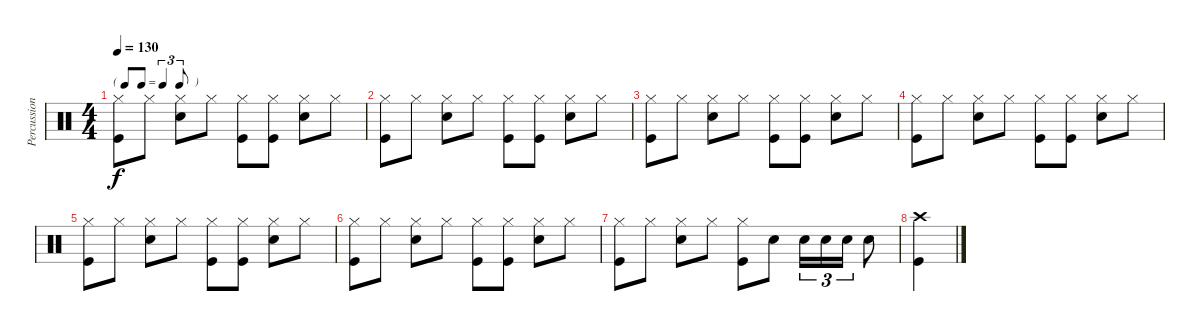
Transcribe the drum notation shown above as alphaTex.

\track ("Percussion" "Percussion") {instrument percussion}
\staff {score}
\articulation defaults
\ts (4 4)
\tf triplet8th
\tempo 130
\clef neutral
\ks c
("Hi-Hat (closed)" "Kick (hit)").8{dy f} "Hi-Hat (closed)".8 ("Hi-Hat (closed)" "Snare (hit) 2").8 "Hi-Hat (closed)".8 ("Hi-Hat (closed)" "Kick (hit)").8 ("Hi-Hat (closed)" "Kick (hit)").8 ("Hi-Hat (closed)" "Snare (hit) 2").8 "Hi-Hat (closed)".8 |
("Hi-Hat (closed)" "Kick (hit)").8 "Hi-Hat (closed)".8 ("Hi-Hat (closed)" "Snare (hit) 2").8 "Hi-Hat (closed)".8 ("Hi-Hat (closed)" "Kick (hit)").8 ("Hi-Hat (closed)" "Kick (hit)").8 ("Hi-Hat (closed)" "Snare (hit) 2").8 "Hi-Hat (closed)".8 |
("Hi-Hat (closed)" "Kick (hit)").8 "Hi-Hat (closed)".8 ("Hi-Hat (closed)" "Snare (hit) 2").8 "Hi-Hat (closed)".8 ("Hi-Hat (closed)" "Kick (hit)").8 ("Hi-Hat (closed)" "Kick (hit)").8 ("Hi-Hat (closed)" "Snare (hit) 2").8 "Hi-Hat (closed)".8 |
("Hi-Hat (closed)" "Kick (hit)").8 "Hi-Hat (closed)".8 ("Hi-Hat (closed)" "Snare (hit) 2").8 "Hi-Hat (closed)".8 ("Hi-Hat (closed)" "Kick (hit)").8 ("Hi-Hat (closed)" "Kick (hit)").8 ("Hi-Hat (closed)" "Snare (hit) 2").8 "Hi-Hat (closed)".8 |
("Hi-Hat (closed)" "Kick (hit)").8 "Hi-Hat (closed)".8 ("Hi-Hat (closed)" "Snare (hit) 2").8 "Hi-Hat (closed)".8 ("Hi-Hat (closed)" "Kick (hit)").8 ("Hi-Hat (closed)" "Kick (hit)").8 ("Hi-Hat (closed)" "Snare (hit) 2").8 "Hi-Hat (closed)".8 |
("Hi-Hat (closed)" "Kick (hit)").8 "Hi-Hat (closed)".8 ("Hi-Hat (closed)" "Snare (hit) 2").8 "Hi-Hat (closed)".8 ("Hi-Hat (closed)" "Kick (hit)").8 ("Hi-Hat (closed)" "Kick (hit)").8 ("Hi-Hat (closed)" "Snare (hit) 2").8 "Hi-Hat (closed)".8 |
("Hi-Hat (closed)" "Kick (hit)").8 "Hi-Hat (closed)".8 ("Hi-Hat (closed)" "Snare (hit) 2").8 "Hi-Hat (closed)".8 ("Hi-Hat (closed)" "Kick (hit)").8 "Snare (hit) 2".8 "Snare (hit) 2".16{tu (3 2)} "Snare (hit) 2".16{tu (3 2)} "Snare (hit) 2".16{tu (3 2)} "Snare (hit) 2".8 |
("Crash high (hit)" "Kick (hit)").4
